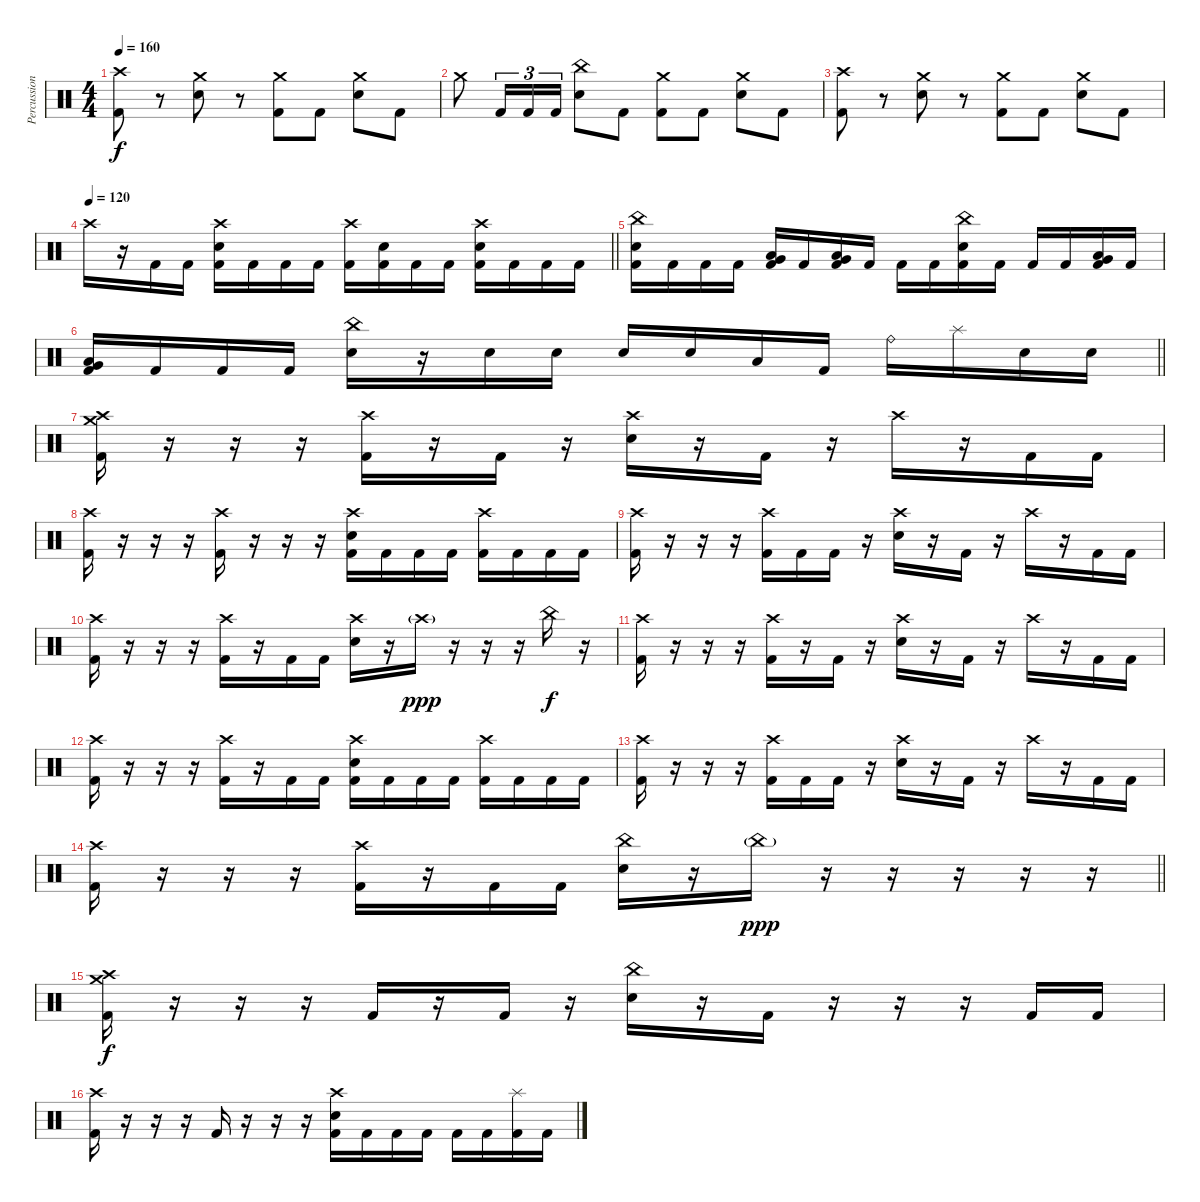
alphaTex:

\track ("Percussion" "Percussion") {instrument percussion}
\staff {score}
\articulation defaults
\ts (4 4)
\tempo 160
\clef neutral
\ks c
("Crash high (hit)" "Kick (hit) 2").8{dy f} r.8 ("Crash medium (hit)" "Snare (hit) 2").8 r.8 ("Crash medium (hit)" "Kick (hit) 2").8 "Kick (hit) 2".8 ("Crash medium (hit)" "Snare (hit) 2").8 "Kick (hit) 2".8 |
"Crash medium (hit)".8 "Kick (hit) 2".16{tu (3 2)} "Kick (hit) 2".16{tu (3 2)} "Kick (hit) 2".16{tu (3 2)} ("China (hit)" "Snare (hit) 2").8 "Kick (hit) 2".8 ("Crash medium (hit)" "Kick (hit) 2").8 "Kick (hit) 2".8 ("Crash medium (hit)" "Snare (hit) 2").8 "Kick (hit) 2".8 |
("Crash high (hit)" "Kick (hit) 2").8 r.8 ("Crash medium (hit)" "Snare (hit) 2").8 r.8 ("Crash medium (hit)" "Kick (hit) 2").8 "Kick (hit) 2".8 ("Crash medium (hit)" "Snare (hit) 2").8 "Kick (hit) 2".8 |
\tempo 120
\barLineRight lightlight "Crash high (hit)".16
r.16 "Kick (hit) 2".16 "Kick (hit) 2".16 ("Crash high (hit)" "Snare (hit) 2" "Kick (hit) 2").16 "Kick (hit) 2".16 "Kick (hit) 2".16 "Kick (hit) 2".16 ("Crash high (hit)" "Kick (hit) 2").16 ("Snare (hit) 2" "Kick (hit) 2").16 "Kick (hit) 2".16 "Kick (hit) 2".16 ("Crash high (hit)" "Snare (hit) 2" "Kick (hit) 2").16 "Kick (hit) 2".16 "Kick (hit) 2".16 "Kick (hit) 2".16 |
\section ("" "")
("China (hit)" "Snare (hit) 2" "Kick (hit) 2").16 "Kick (hit) 2".16 "Kick (hit) 2".16 "Kick (hit) 2".16 ("Low Tom (hit)" "Very Low Tom (hit)" "Kick (hit) 2").16 "Kick (hit) 2".16 ("Low Tom (hit)" "Very Low Tom (hit)" "Kick (hit) 2").16 "Kick (hit) 2".16 "Kick (hit) 2".16 "Kick (hit) 2".16 ("China (hit)" "Snare (hit) 2" "Kick (hit) 2").16 "Kick (hit) 2".16 "Kick (hit) 2".16 "Kick (hit) 2".16 ("Low Tom (hit)" "Very Low Tom (hit)" "Kick (hit) 2").16 "Kick (hit) 2".16 |
\barLineRight lightlight
("Low Tom (hit)" "Very Low Tom (hit)" "Kick (hit) 2").16 "Kick (hit) 2".16 "Kick (hit) 2".16 "Kick (hit) 2".16 ("China (hit)" "Snare (hit) 2").16 r.16 "Snare (hit) 2".16 "Snare (hit) 2".16 "Snare (hit) 2".16 "Snare (hit) 2".16 "Low Tom (hit)".16 "Kick (hit) 2".16 "Ride (bell)".16 "Splash (hit)".16 "Snare (hit) 2".16 "Snare (hit) 2".16 |
\section ("" "")
("Crash high (hit)" "Crash medium (hit)" "Kick (hit) 2").16 r.16 r.16 r.16 ("Crash high (hit)" "Kick (hit) 2").16 r.16 "Kick (hit) 2".16 r.16 ("Crash high (hit)" "Snare (hit) 2").16 r.16 "Kick (hit) 2".16 r.16 "Crash high (hit)".16 r.16 "Kick (hit) 2".16 "Kick (hit) 2".16 |
("Crash high (hit)" "Kick (hit) 2").16 r.16 r.16 r.16 ("Crash high (hit)" "Kick (hit) 2").16 r.16 r.16 r.16 ("Crash high (hit)" "Snare (hit) 2" "Kick (hit) 2").16 "Kick (hit) 2".16 "Kick (hit) 2".16 "Kick (hit) 2".16 ("Crash high (hit)" "Kick (hit) 2").16 "Kick (hit) 2".16 "Kick (hit) 2".16 "Kick (hit) 2".16 |
("Crash high (hit)" "Kick (hit) 2").16 r.16 r.16 r.16 ("Crash high (hit)" "Kick (hit) 2").16 "Kick (hit) 2".16 "Kick (hit) 2".16 r.16 ("Crash high (hit)" "Snare (hit) 2").16 r.16 "Kick (hit) 2".16 r.16 "Crash high (hit)".16 r.16 "Kick (hit) 2".16 "Kick (hit) 2".16 |
("Crash high (hit)" "Kick (hit) 2").16 r.16 r.16 r.16 ("Crash high (hit)" "Kick (hit) 2").16 r.16 "Kick (hit) 2".16 "Kick (hit) 2".16 ("Crash high (hit)" "Snare (hit) 2").16 r.16 "Crash high (hit)"{g}.16{dy ppp} r.16 r.16 r.16 "China (hit)".16{dy f} r.16 |
("Crash high (hit)" "Kick (hit) 2").16 r.16 r.16 r.16 ("Crash high (hit)" "Kick (hit) 2").16 r.16 "Kick (hit) 2".16 r.16 ("Crash high (hit)" "Snare (hit) 2").16 r.16 "Kick (hit) 2".16 r.16 "Crash high (hit)".16 r.16 "Kick (hit) 2".16 "Kick (hit) 2".16 |
("Crash high (hit)" "Kick (hit) 2").16 r.16 r.16 r.16 ("Crash high (hit)" "Kick (hit) 2").16 r.16 "Kick (hit) 2".16 "Kick (hit) 2".16 ("Crash high (hit)" "Snare (hit) 2" "Kick (hit) 2").16 "Kick (hit) 2".16 "Kick (hit) 2".16 "Kick (hit) 2".16 ("Crash high (hit)" "Kick (hit) 2").16 "Kick (hit) 2".16 "Kick (hit) 2".16 "Kick (hit) 2".16 |
("Crash high (hit)" "Kick (hit) 2").16 r.16 r.16 r.16 ("Crash high (hit)" "Kick (hit) 2").16 "Kick (hit) 2".16 "Kick (hit) 2".16 r.16 ("Crash high (hit)" "Snare (hit) 2").16 r.16 "Kick (hit) 2".16 r.16 "Crash high (hit)".16 r.16 "Kick (hit) 2".16 "Kick (hit) 2".16 |
\barLineRight lightlight
("Crash high (hit)" "Kick (hit) 2").16 r.16 r.16 r.16 ("Crash high (hit)" "Kick (hit) 2").16 r.16 "Kick (hit) 2".16 "Kick (hit) 2".16 ("China (hit)" "Snare (hit) 2").16 r.16 "China (hit)"{g}.16{dy ppp} r.16 r.16 r.16 r.16 r.16 |
\section ("" "")
("Crash high (hit)" "Crash medium (hit)" "Kick (hit) 2").16{dy f} r.16 r.16 r.16 "Kick (hit) 2".16 r.16 "Kick (hit) 2".16 r.16 ("China (hit)" "Snare (hit) 2").16 r.16 "Kick (hit) 2".16 r.16 r.16 r.16 "Kick (hit) 2".16 "Kick (hit) 2".16 |
("Crash high (hit)" "Kick (hit) 2").16 r.16 r.16 r.16 "Kick (hit) 2".16 r.16 r.16 r.16 ("Crash high (hit)" "Snare (hit) 2" "Kick (hit) 2").16 "Kick (hit) 2".16 "Kick (hit) 2".16 "Kick (hit) 2".16 "Kick (hit) 2".16 "Kick (hit) 2".16 ("Splash (hit)" "Kick (hit) 2").16 "Kick (hit) 2".16
